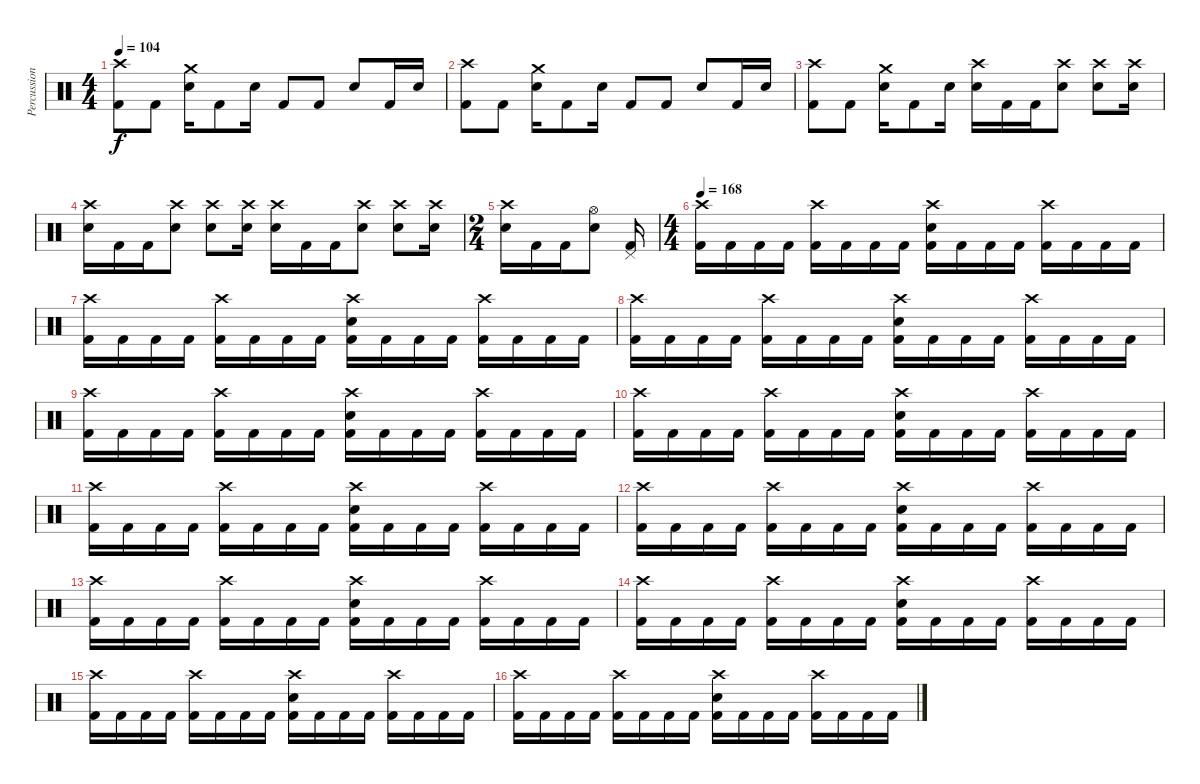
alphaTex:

\track ("Percussion" "Percussion") {instrument percussion}
\staff {score}
\articulation defaults
\ts (4 4)
\tempo 104
\clef neutral
\ks c
("Crash high (hit)" "Kick (hit) 2").8{dy f} "Kick (hit) 2".8 ("Crash medium (hit)" "Electric Snare (hit)").16 "Kick (hit) 2".8 "Electric Snare (hit)".16 "Kick (hit) 2".8 "Kick (hit) 2".8 "Electric Snare (hit)".8 "Kick (hit) 2".16 "Electric Snare (hit)".16 |
("Crash high (hit)" "Kick (hit) 2").8 "Kick (hit) 2".8 ("Crash medium (hit)" "Electric Snare (hit)").16 "Kick (hit) 2".8 "Electric Snare (hit)".16 "Kick (hit) 2".8 "Kick (hit) 2".8 "Electric Snare (hit)".8 "Kick (hit) 2".16 "Electric Snare (hit)".16 |
("Crash high (hit)" "Kick (hit) 2").8 "Kick (hit) 2".8 ("Crash medium (hit)" "Electric Snare (hit)").16 "Kick (hit) 2".8 "Electric Snare (hit)".16 ("Crash high (hit)" "Electric Snare (hit)").16 "Kick (hit) 2".16 "Kick (hit) 2".16 ("Crash high (hit)" "Electric Snare (hit)").8 ("Crash high (hit)" "Electric Snare (hit)").8 ("Crash high (hit)" "Electric Snare (hit)").16 |
("Crash high (hit)" "Electric Snare (hit)").16 "Kick (hit) 2".16 "Kick (hit) 2".16 ("Crash high (hit)" "Electric Snare (hit)").8 ("Crash high (hit)" "Electric Snare (hit)").8 ("Crash high (hit)" "Electric Snare (hit)").16 ("Crash high (hit)" "Electric Snare (hit)").16 "Kick (hit) 2".16 "Kick (hit) 2".16 ("Crash high (hit)" "Electric Snare (hit)").8 ("Crash high (hit)" "Electric Snare (hit)").8 ("Crash high (hit)" "Electric Snare (hit)").16 |
\ts (2 4)
("Crash high (hit)" "Electric Snare (hit)").16 "Kick (hit) 2".16 "Kick (hit) 2".16 ("Hi-Hat (open)" "Electric Snare (hit)").8 ("Pedal Hi-Hat (hit)" "Kick (hit) 2").16 |
\ts (4 4)
\tempo 168
("Crash high (hit)" "Kick (hit) 2").16 "Kick (hit) 2".16 "Kick (hit) 2".16 "Kick (hit) 2".16 ("Crash high (hit)" "Kick (hit) 2").16 "Kick (hit) 2".16 "Kick (hit) 2".16 "Kick (hit) 2".16 ("Crash high (hit)" "Electric Snare (hit)" "Kick (hit) 2").16 "Kick (hit) 2".16 "Kick (hit) 2".16 "Kick (hit) 2".16 ("Crash high (hit)" "Kick (hit) 2").16 "Kick (hit) 2".16 "Kick (hit) 2".16 "Kick (hit) 2".16 |
("Crash high (hit)" "Kick (hit) 2").16 "Kick (hit) 2".16 "Kick (hit) 2".16 "Kick (hit) 2".16 ("Crash high (hit)" "Kick (hit) 2").16 "Kick (hit) 2".16 "Kick (hit) 2".16 "Kick (hit) 2".16 ("Crash high (hit)" "Electric Snare (hit)" "Kick (hit) 2").16 "Kick (hit) 2".16 "Kick (hit) 2".16 "Kick (hit) 2".16 ("Crash high (hit)" "Kick (hit) 2").16 "Kick (hit) 2".16 "Kick (hit) 2".16 "Kick (hit) 2".16 |
("Crash high (hit)" "Kick (hit) 2").16 "Kick (hit) 2".16 "Kick (hit) 2".16 "Kick (hit) 2".16 ("Crash high (hit)" "Kick (hit) 2").16 "Kick (hit) 2".16 "Kick (hit) 2".16 "Kick (hit) 2".16 ("Crash high (hit)" "Electric Snare (hit)" "Kick (hit) 2").16 "Kick (hit) 2".16 "Kick (hit) 2".16 "Kick (hit) 2".16 ("Crash high (hit)" "Kick (hit) 2").16 "Kick (hit) 2".16 "Kick (hit) 2".16 "Kick (hit) 2".16 |
("Crash high (hit)" "Kick (hit) 2").16 "Kick (hit) 2".16 "Kick (hit) 2".16 "Kick (hit) 2".16 ("Crash high (hit)" "Kick (hit) 2").16 "Kick (hit) 2".16 "Kick (hit) 2".16 "Kick (hit) 2".16 ("Crash high (hit)" "Electric Snare (hit)" "Kick (hit) 2").16 "Kick (hit) 2".16 "Kick (hit) 2".16 "Kick (hit) 2".16 ("Crash high (hit)" "Kick (hit) 2").16 "Kick (hit) 2".16 "Kick (hit) 2".16 "Kick (hit) 2".16 |
("Crash high (hit)" "Kick (hit) 2").16 "Kick (hit) 2".16 "Kick (hit) 2".16 "Kick (hit) 2".16 ("Crash high (hit)" "Kick (hit) 2").16 "Kick (hit) 2".16 "Kick (hit) 2".16 "Kick (hit) 2".16 ("Crash high (hit)" "Electric Snare (hit)" "Kick (hit) 2").16 "Kick (hit) 2".16 "Kick (hit) 2".16 "Kick (hit) 2".16 ("Crash high (hit)" "Kick (hit) 2").16 "Kick (hit) 2".16 "Kick (hit) 2".16 "Kick (hit) 2".16 |
("Crash high (hit)" "Kick (hit) 2").16 "Kick (hit) 2".16 "Kick (hit) 2".16 "Kick (hit) 2".16 ("Crash high (hit)" "Kick (hit) 2").16 "Kick (hit) 2".16 "Kick (hit) 2".16 "Kick (hit) 2".16 ("Crash high (hit)" "Electric Snare (hit)" "Kick (hit) 2").16 "Kick (hit) 2".16 "Kick (hit) 2".16 "Kick (hit) 2".16 ("Crash high (hit)" "Kick (hit) 2").16 "Kick (hit) 2".16 "Kick (hit) 2".16 "Kick (hit) 2".16 |
("Crash high (hit)" "Kick (hit) 2").16 "Kick (hit) 2".16 "Kick (hit) 2".16 "Kick (hit) 2".16 ("Crash high (hit)" "Kick (hit) 2").16 "Kick (hit) 2".16 "Kick (hit) 2".16 "Kick (hit) 2".16 ("Crash high (hit)" "Electric Snare (hit)" "Kick (hit) 2").16 "Kick (hit) 2".16 "Kick (hit) 2".16 "Kick (hit) 2".16 ("Crash high (hit)" "Kick (hit) 2").16 "Kick (hit) 2".16 "Kick (hit) 2".16 "Kick (hit) 2".16 |
("Crash high (hit)" "Kick (hit) 2").16 "Kick (hit) 2".16 "Kick (hit) 2".16 "Kick (hit) 2".16 ("Crash high (hit)" "Kick (hit) 2").16 "Kick (hit) 2".16 "Kick (hit) 2".16 "Kick (hit) 2".16 ("Crash high (hit)" "Electric Snare (hit)" "Kick (hit) 2").16 "Kick (hit) 2".16 "Kick (hit) 2".16 "Kick (hit) 2".16 ("Crash high (hit)" "Kick (hit) 2").16 "Kick (hit) 2".16 "Kick (hit) 2".16 "Kick (hit) 2".16 |
("Crash high (hit)" "Kick (hit) 2").16 "Kick (hit) 2".16 "Kick (hit) 2".16 "Kick (hit) 2".16 ("Crash high (hit)" "Kick (hit) 2").16 "Kick (hit) 2".16 "Kick (hit) 2".16 "Kick (hit) 2".16 ("Crash high (hit)" "Electric Snare (hit)" "Kick (hit) 2").16 "Kick (hit) 2".16 "Kick (hit) 2".16 "Kick (hit) 2".16 ("Crash high (hit)" "Kick (hit) 2").16 "Kick (hit) 2".16 "Kick (hit) 2".16 "Kick (hit) 2".16 |
("Crash high (hit)" "Kick (hit) 2").16 "Kick (hit) 2".16 "Kick (hit) 2".16 "Kick (hit) 2".16 ("Crash high (hit)" "Kick (hit) 2").16 "Kick (hit) 2".16 "Kick (hit) 2".16 "Kick (hit) 2".16 ("Crash high (hit)" "Electric Snare (hit)" "Kick (hit) 2").16 "Kick (hit) 2".16 "Kick (hit) 2".16 "Kick (hit) 2".16 ("Crash high (hit)" "Kick (hit) 2").16 "Kick (hit) 2".16 "Kick (hit) 2".16 "Kick (hit) 2".16 |
("Crash high (hit)" "Kick (hit) 2").16 "Kick (hit) 2".16 "Kick (hit) 2".16 "Kick (hit) 2".16 ("Crash high (hit)" "Kick (hit) 2").16 "Kick (hit) 2".16 "Kick (hit) 2".16 "Kick (hit) 2".16 ("Crash high (hit)" "Electric Snare (hit)" "Kick (hit) 2").16 "Kick (hit) 2".16 "Kick (hit) 2".16 "Kick (hit) 2".16 ("Crash high (hit)" "Kick (hit) 2").16 "Kick (hit) 2".16 "Kick (hit) 2".16 "Kick (hit) 2".16
